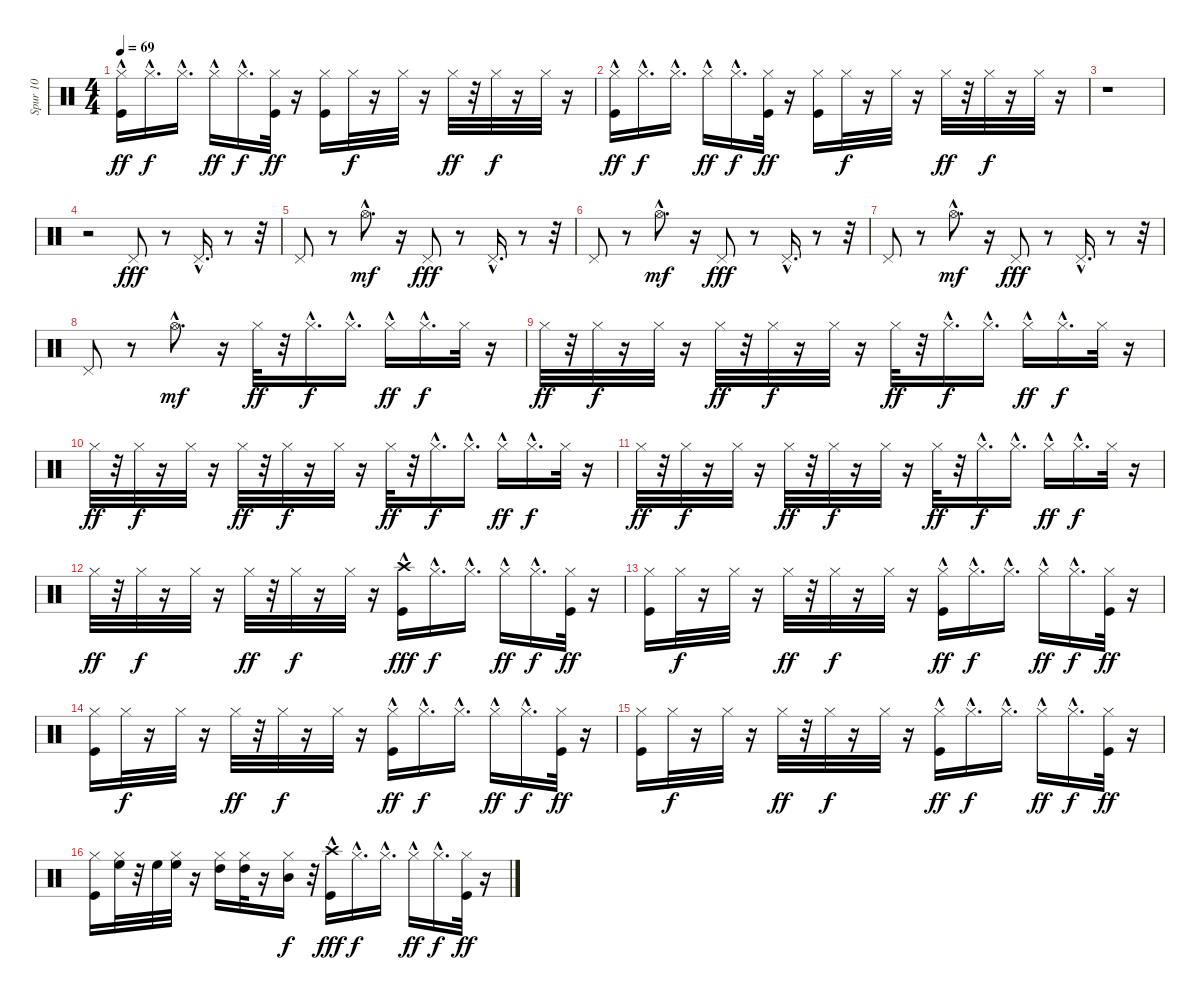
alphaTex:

\track ("Spur 10" "Spur 10") {instrument percussion}
\staff {score}
\articulation defaults
\ts (4 4)
\tempo 69
\clef neutral
\ks c
("Kick (hit)"{hac} "Hi-Hat (closed)").16{dy ff} "Hi-Hat (closed)"{hac}.16{d dy f} "Hi-Hat (closed)"{hac}.16{d} "Hi-Hat (closed)"{hac}.16{dy ff} "Hi-Hat (closed)"{hac}.16{d dy f} ("Kick (hit)" "Hi-Hat (closed)").32{dy ff} r.16 ("Kick (hit)" "Hi-Hat (closed)").16 "Hi-Hat (closed)".32{dy f} r.16 "Hi-Hat (closed)".32 r.16 "Hi-Hat (closed)".32{dy ff} r.32 "Hi-Hat (closed)".32{dy f} r.16 "Hi-Hat (closed)".32 r.16 |
("Kick (hit)"{hac} "Hi-Hat (closed)").16{dy ff} "Hi-Hat (closed)"{hac}.16{d dy f} "Hi-Hat (closed)"{hac}.16{d} "Hi-Hat (closed)"{hac}.16{dy ff} "Hi-Hat (closed)"{hac}.16{d dy f} ("Kick (hit)" "Hi-Hat (closed)").32{dy ff} r.16 ("Kick (hit)" "Hi-Hat (closed)").16 "Hi-Hat (closed)".32{dy f} r.16 "Hi-Hat (closed)".32 r.16 "Hi-Hat (closed)".32{dy ff} r.32 "Hi-Hat (closed)".32{dy f} r.16 "Hi-Hat (closed)".32 r.16 |
r.1 |
r.2 "Pedal Hi-Hat (hit)".8{dy fff} r.8 "Pedal Hi-Hat (hit)"{hac}.16{d} r.8 r.32 |
"Pedal Hi-Hat (hit)".8 r.8 "Hi-Hat (open)"{hac}.8{d dy mf} r.16 "Pedal Hi-Hat (hit)".8{dy fff} r.8 "Pedal Hi-Hat (hit)"{hac}.16{d} r.8 r.32 |
"Pedal Hi-Hat (hit)".8 r.8 "Hi-Hat (open)"{hac}.8{d dy mf} r.16 "Pedal Hi-Hat (hit)".8{dy fff} r.8 "Pedal Hi-Hat (hit)"{hac}.16{d} r.8 r.32 |
"Pedal Hi-Hat (hit)".8 r.8 "Hi-Hat (open)"{hac}.8{d dy mf} r.16 "Pedal Hi-Hat (hit)".8{dy fff} r.8 "Pedal Hi-Hat (hit)"{hac}.16{d} r.8 r.32 |
"Pedal Hi-Hat (hit)".8 r.8 "Hi-Hat (open)"{hac}.8{d dy mf} r.16 "Hi-Hat (closed)".32{dy ff} r.32 "Hi-Hat (closed)"{hac}.16{d dy f} "Hi-Hat (closed)"{hac}.16{d} "Hi-Hat (closed)"{hac}.16{dy ff} "Hi-Hat (closed)"{hac}.16{d dy f} "Hi-Hat (closed)".32 r.16 |
"Hi-Hat (closed)".32{dy ff} r.32 "Hi-Hat (closed)".32{dy f} r.16 "Hi-Hat (closed)".32 r.16 "Hi-Hat (closed)".32{dy ff} r.32 "Hi-Hat (closed)".32{dy f} r.16 "Hi-Hat (closed)".32 r.16 "Hi-Hat (closed)".32{dy ff} r.32 "Hi-Hat (closed)"{hac}.16{d dy f} "Hi-Hat (closed)"{hac}.16{d} "Hi-Hat (closed)"{hac}.16{dy ff} "Hi-Hat (closed)"{hac}.16{d dy f} "Hi-Hat (closed)".32 r.16 |
"Hi-Hat (closed)".32{dy ff} r.32 "Hi-Hat (closed)".32{dy f} r.16 "Hi-Hat (closed)".32 r.16 "Hi-Hat (closed)".32{dy ff} r.32 "Hi-Hat (closed)".32{dy f} r.16 "Hi-Hat (closed)".32 r.16 "Hi-Hat (closed)".32{dy ff} r.32 "Hi-Hat (closed)"{hac}.16{d dy f} "Hi-Hat (closed)"{hac}.16{d} "Hi-Hat (closed)"{hac}.16{dy ff} "Hi-Hat (closed)"{hac}.16{d dy f} "Hi-Hat (closed)".32 r.16 |
"Hi-Hat (closed)".32{dy ff} r.32 "Hi-Hat (closed)".32{dy f} r.16 "Hi-Hat (closed)".32 r.16 "Hi-Hat (closed)".32{dy ff} r.32 "Hi-Hat (closed)".32{dy f} r.16 "Hi-Hat (closed)".32 r.16 "Hi-Hat (closed)".32{dy ff} r.32 "Hi-Hat (closed)"{hac}.16{d dy f} "Hi-Hat (closed)"{hac}.16{d} "Hi-Hat (closed)"{hac}.16{dy ff} "Hi-Hat (closed)"{hac}.16{d dy f} "Hi-Hat (closed)".32 r.16 |
"Hi-Hat (closed)".32{dy ff} r.32 "Hi-Hat (closed)".32{dy f} r.16 "Hi-Hat (closed)".32 r.16 "Hi-Hat (closed)".32{dy ff} r.32 "Hi-Hat (closed)".32{dy f} r.16 "Hi-Hat (closed)".32 r.16 ("Kick (hit)"{hac} "Crash high (hit)").16{dy fff} "Hi-Hat (closed)"{hac}.16{d dy f} "Hi-Hat (closed)"{hac}.16{d} "Hi-Hat (closed)"{hac}.16{dy ff} "Hi-Hat (closed)"{hac}.16{d dy f} ("Kick (hit)" "Hi-Hat (closed)").32{dy ff} r.16 |
("Kick (hit)" "Hi-Hat (closed)").16 "Hi-Hat (closed)".32{dy f} r.16 "Hi-Hat (closed)".32 r.16 "Hi-Hat (closed)".32{dy ff} r.32 "Hi-Hat (closed)".32{dy f} r.16 "Hi-Hat (closed)".32 r.16 ("Kick (hit)"{hac} "Hi-Hat (closed)").16{dy ff} "Hi-Hat (closed)"{hac}.16{d dy f} "Hi-Hat (closed)"{hac}.16{d} "Hi-Hat (closed)"{hac}.16{dy ff} "Hi-Hat (closed)"{hac}.16{d dy f} ("Kick (hit)" "Hi-Hat (closed)").32{dy ff} r.16 |
("Kick (hit)" "Hi-Hat (closed)").16 "Hi-Hat (closed)".32{dy f} r.16 "Hi-Hat (closed)".32 r.16 "Hi-Hat (closed)".32{dy ff} r.32 "Hi-Hat (closed)".32{dy f} r.16 "Hi-Hat (closed)".32 r.16 ("Kick (hit)"{hac} "Hi-Hat (closed)").16{dy ff} "Hi-Hat (closed)"{hac}.16{d dy f} "Hi-Hat (closed)"{hac}.16{d} "Hi-Hat (closed)"{hac}.16{dy ff} "Hi-Hat (closed)"{hac}.16{d dy f} ("Kick (hit)" "Hi-Hat (closed)").32{dy ff} r.16 |
("Kick (hit)" "Hi-Hat (closed)").16 "Hi-Hat (closed)".32{dy f} r.16 "Hi-Hat (closed)".32 r.16 "Hi-Hat (closed)".32{dy ff} r.32 "Hi-Hat (closed)".32{dy f} r.16 "Hi-Hat (closed)".32 r.16 ("Kick (hit)"{hac} "Hi-Hat (closed)").16{dy ff} "Hi-Hat (closed)"{hac}.16{d dy f} "Hi-Hat (closed)"{hac}.16{d} "Hi-Hat (closed)"{hac}.16{dy ff} "Hi-Hat (closed)"{hac}.16{d dy f} ("Kick (hit)" "Hi-Hat (closed)").32{dy ff} r.16 |
("Kick (hit)" "Hi-Hat (closed)").16 ("Hi-Hat (closed)" "High Floor Tom (hit)").32 r.32 "High Floor Tom (hit)".32 ("Hi-Hat (closed)" "High Floor Tom (hit)").32 r.16 ("Hi-Hat (closed)" "High Tom (hit)").16 ("Hi-Hat (closed)" "High Tom (hit)").32 r.16 ("Hi-Hat (closed)" "Mid Tom (hit)").16{dy f} r.32 ("Kick (hit)"{hac} "Crash high (hit)").16{dy fff} "Hi-Hat (closed)"{hac}.16{d dy f} "Hi-Hat (closed)"{hac}.16{d} "Hi-Hat (closed)"{hac}.16{dy ff} "Hi-Hat (closed)"{hac}.16{d dy f} ("Kick (hit)" "Hi-Hat (closed)").32{dy ff} r.16
